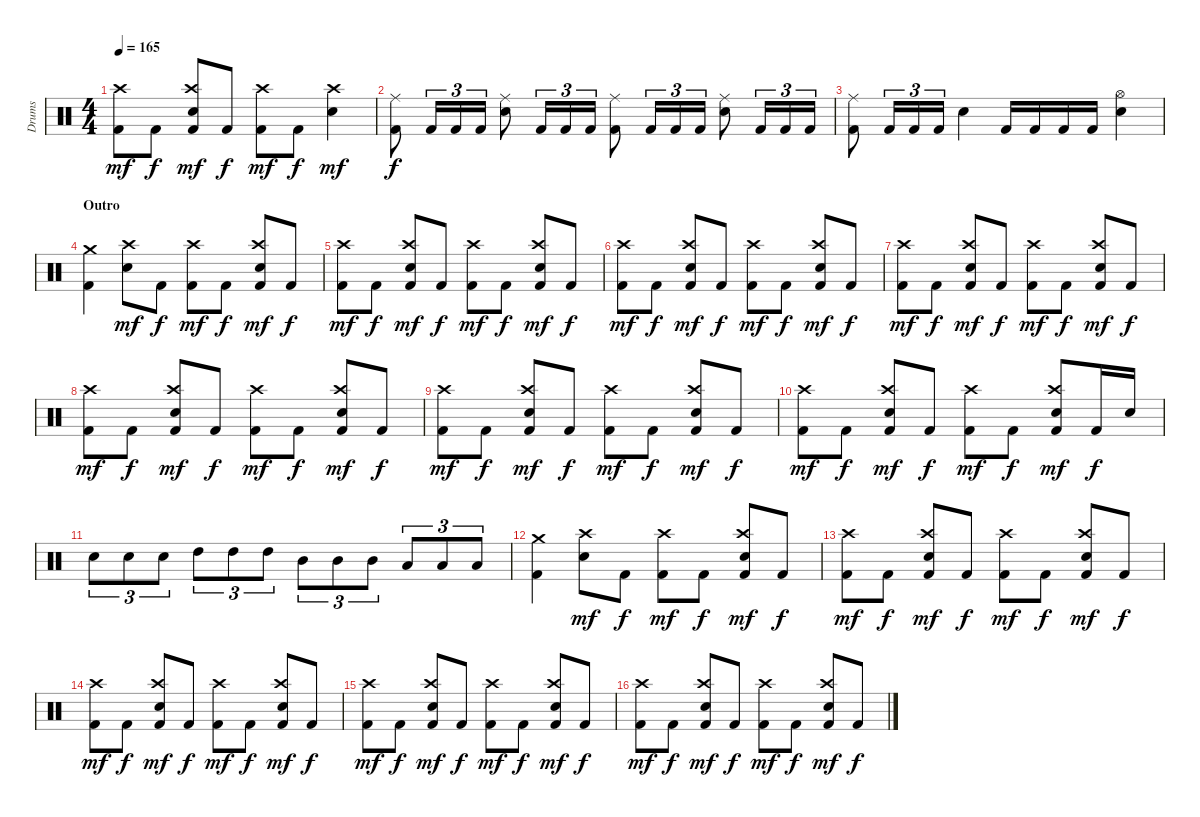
\track ("Drums" "Drums") {instrument percussion}
\staff {score}
\articulation defaults
\ts (4 4)
\tempo 165
\clef neutral
\ks c
("Kick (hit) 2" "Crash high (hit)").8{dy mf} "Kick (hit) 2".8{dy f} ("Kick (hit) 2" "Electric Snare (hit)" "Crash high (hit)").8{dy mf} "Kick (hit) 2".8{dy f} ("Kick (hit) 2" "Crash high (hit)").8{dy mf} "Kick (hit) 2".8{dy f} ("Electric Snare (hit)" "Crash high (hit)").4{dy mf} |
("Kick (hit) 2" "Ride (middle)").8{dy f} "Kick (hit) 2".16{tu (3 2)} "Kick (hit) 2".16{tu (3 2)} "Kick (hit) 2".16{tu (3 2)} ("Electric Snare (hit)" "Ride (middle)").8 "Kick (hit) 2".16{tu (3 2)} "Kick (hit) 2".16{tu (3 2)} "Kick (hit) 2".16{tu (3 2)} ("Kick (hit) 2" "Ride (middle)").8 "Kick (hit) 2".16{tu (3 2)} "Kick (hit) 2".16{tu (3 2)} "Kick (hit) 2".16{tu (3 2)} ("Electric Snare (hit)" "Ride (middle)").8 "Kick (hit) 2".16{tu (3 2)} "Kick (hit) 2".16{tu (3 2)} "Kick (hit) 2".16{tu (3 2)} |
("Kick (hit) 2" "Ride (middle)").8 "Kick (hit) 2".16{tu (3 2)} "Kick (hit) 2".16{tu (3 2)} "Kick (hit) 2".16{tu (3 2)} "Electric Snare (hit)".4 "Kick (hit) 2".16 "Kick (hit) 2".16 "Kick (hit) 2".16 "Kick (hit) 2".16 ("Electric Snare (hit)" "Hi-Hat (open)").4 |
\section ("" "Outro")
("Kick (hit) 2" "Crash medium (hit)").4 ("Electric Snare (hit)" "Crash high (hit)").8{dy mf} "Kick (hit) 2".8{dy f} ("Kick (hit) 2" "Crash high (hit)").8{dy mf} "Kick (hit) 2".8{dy f} ("Kick (hit) 2" "Electric Snare (hit)" "Crash high (hit)").8{dy mf} "Kick (hit) 2".8{dy f} |
("Kick (hit) 2" "Crash high (hit)").8{dy mf} "Kick (hit) 2".8{dy f} ("Kick (hit) 2" "Electric Snare (hit)" "Crash high (hit)").8{dy mf} "Kick (hit) 2".8{dy f} ("Kick (hit) 2" "Crash high (hit)").8{dy mf} "Kick (hit) 2".8{dy f} ("Kick (hit) 2" "Electric Snare (hit)" "Crash high (hit)").8{dy mf} "Kick (hit) 2".8{dy f} |
("Kick (hit) 2" "Crash high (hit)").8{dy mf} "Kick (hit) 2".8{dy f} ("Kick (hit) 2" "Electric Snare (hit)" "Crash high (hit)").8{dy mf} "Kick (hit) 2".8{dy f} ("Kick (hit) 2" "Crash high (hit)").8{dy mf} "Kick (hit) 2".8{dy f} ("Kick (hit) 2" "Electric Snare (hit)" "Crash high (hit)").8{dy mf} "Kick (hit) 2".8{dy f} |
("Kick (hit) 2" "Crash high (hit)").8{dy mf} "Kick (hit) 2".8{dy f} ("Kick (hit) 2" "Electric Snare (hit)" "Crash high (hit)").8{dy mf} "Kick (hit) 2".8{dy f} ("Kick (hit) 2" "Crash high (hit)").8{dy mf} "Kick (hit) 2".8{dy f} ("Kick (hit) 2" "Electric Snare (hit)" "Crash high (hit)").8{dy mf} "Kick (hit) 2".8{dy f} |
("Kick (hit) 2" "Crash high (hit)").8{dy mf} "Kick (hit) 2".8{dy f} ("Kick (hit) 2" "Electric Snare (hit)" "Crash high (hit)").8{dy mf} "Kick (hit) 2".8{dy f} ("Kick (hit) 2" "Crash high (hit)").8{dy mf} "Kick (hit) 2".8{dy f} ("Kick (hit) 2" "Electric Snare (hit)" "Crash high (hit)").8{dy mf} "Kick (hit) 2".8{dy f} |
("Kick (hit) 2" "Crash high (hit)").8{dy mf} "Kick (hit) 2".8{dy f} ("Kick (hit) 2" "Electric Snare (hit)" "Crash high (hit)").8{dy mf} "Kick (hit) 2".8{dy f} ("Kick (hit) 2" "Crash high (hit)").8{dy mf} "Kick (hit) 2".8{dy f} ("Kick (hit) 2" "Electric Snare (hit)" "Crash high (hit)").8{dy mf} "Kick (hit) 2".8{dy f} |
("Kick (hit) 2" "Crash high (hit)").8{dy mf} "Kick (hit) 2".8{dy f} ("Kick (hit) 2" "Electric Snare (hit)" "Crash high (hit)").8{dy mf} "Kick (hit) 2".8{dy f} ("Kick (hit) 2" "Crash high (hit)").8{dy mf} "Kick (hit) 2".8{dy f} ("Kick (hit) 2" "Electric Snare (hit)" "Crash high (hit)").8{dy mf} "Kick (hit) 2".16{dy f} "Electric Snare (hit)".16 |
"Electric Snare (hit)".8{tu (3 2)} "Electric Snare (hit)".8{tu (3 2)} "Electric Snare (hit)".8{tu (3 2)} "High Tom (hit)".8{tu (3 2)} "High Tom (hit)".8{tu (3 2)} "High Tom (hit)".8{tu (3 2)} "Mid Tom (hit)".8{tu (3 2)} "Mid Tom (hit)".8{tu (3 2)} "Mid Tom (hit)".8{tu (3 2)} "Low Tom (hit)".8{tu (3 2)} "Low Tom (hit)".8{tu (3 2)} "Low Tom (hit)".8{tu (3 2)} |
("Kick (hit) 2" "Crash medium (hit)").4 ("Electric Snare (hit)" "Crash high (hit)").8{dy mf} "Kick (hit) 2".8{dy f} ("Kick (hit) 2" "Crash high (hit)").8{dy mf} "Kick (hit) 2".8{dy f} ("Kick (hit) 2" "Electric Snare (hit)" "Crash high (hit)").8{dy mf} "Kick (hit) 2".8{dy f} |
("Kick (hit) 2" "Crash high (hit)").8{dy mf} "Kick (hit) 2".8{dy f} ("Kick (hit) 2" "Electric Snare (hit)" "Crash high (hit)").8{dy mf} "Kick (hit) 2".8{dy f} ("Kick (hit) 2" "Crash high (hit)").8{dy mf} "Kick (hit) 2".8{dy f} ("Kick (hit) 2" "Electric Snare (hit)" "Crash high (hit)").8{dy mf} "Kick (hit) 2".8{dy f} |
("Kick (hit) 2" "Crash high (hit)").8{dy mf} "Kick (hit) 2".8{dy f} ("Kick (hit) 2" "Electric Snare (hit)" "Crash high (hit)").8{dy mf} "Kick (hit) 2".8{dy f} ("Kick (hit) 2" "Crash high (hit)").8{dy mf} "Kick (hit) 2".8{dy f} ("Kick (hit) 2" "Electric Snare (hit)" "Crash high (hit)").8{dy mf} "Kick (hit) 2".8{dy f} |
("Kick (hit) 2" "Crash high (hit)").8{dy mf} "Kick (hit) 2".8{dy f} ("Kick (hit) 2" "Electric Snare (hit)" "Crash high (hit)").8{dy mf} "Kick (hit) 2".8{dy f} ("Kick (hit) 2" "Crash high (hit)").8{dy mf} "Kick (hit) 2".8{dy f} ("Kick (hit) 2" "Electric Snare (hit)" "Crash high (hit)").8{dy mf} "Kick (hit) 2".8{dy f} |
("Kick (hit) 2" "Crash high (hit)").8{dy mf} "Kick (hit) 2".8{dy f} ("Kick (hit) 2" "Electric Snare (hit)" "Crash high (hit)").8{dy mf} "Kick (hit) 2".8{dy f} ("Kick (hit) 2" "Crash high (hit)").8{dy mf} "Kick (hit) 2".8{dy f} ("Kick (hit) 2" "Electric Snare (hit)" "Crash high (hit)").8{dy mf} "Kick (hit) 2".8{dy f}
